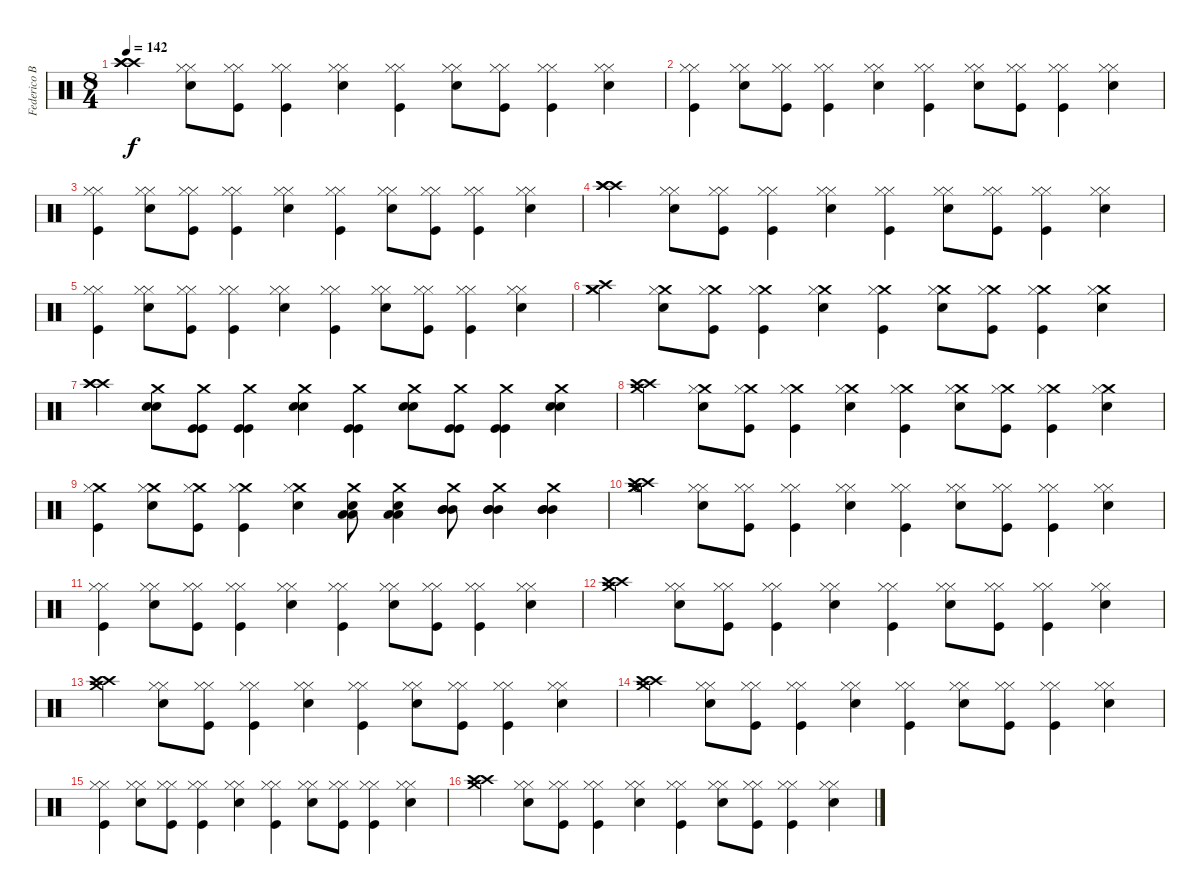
\track ("Federico Bogliaccino-Drums" "Federico B") {instrument percussion}
\staff {score}
\articulation defaults
\ts (8 4)
\tempo 142
\clef neutral
\ks c
("Crash high (hit)" "Crash high (hit)" "Crash high (hit)").4{dy f} ("Hi-Hat (closed)" "Hi-Hat (closed)" "Snare (hit) 2").8 ("Hi-Hat (closed)" "Hi-Hat (closed)" "Kick (hit)").8 ("Hi-Hat (closed)" "Hi-Hat (closed)" "Kick (hit)").4 ("Hi-Hat (closed)" "Hi-Hat (closed)" "Snare (hit) 2").4 ("Hi-Hat (closed)" "Hi-Hat (closed)" "Kick (hit)").4 ("Hi-Hat (closed)" "Hi-Hat (closed)" "Snare (hit) 2").8 ("Hi-Hat (closed)" "Hi-Hat (closed)" "Kick (hit)").8 ("Hi-Hat (closed)" "Hi-Hat (closed)" "Kick (hit)").4 ("Hi-Hat (closed)" "Hi-Hat (closed)" "Snare (hit) 2").4 |
("Hi-Hat (closed)" "Hi-Hat (closed)" "Kick (hit)").4 ("Hi-Hat (closed)" "Hi-Hat (closed)" "Snare (hit) 2").8 ("Hi-Hat (closed)" "Hi-Hat (closed)" "Kick (hit)").8 ("Hi-Hat (closed)" "Hi-Hat (closed)" "Kick (hit)").4 ("Hi-Hat (closed)" "Hi-Hat (closed)" "Snare (hit) 2").4 ("Hi-Hat (closed)" "Hi-Hat (closed)" "Kick (hit)").4 ("Hi-Hat (closed)" "Hi-Hat (closed)" "Snare (hit) 2").8 ("Hi-Hat (closed)" "Hi-Hat (closed)" "Kick (hit)").8 ("Hi-Hat (closed)" "Hi-Hat (closed)" "Kick (hit)").4 ("Hi-Hat (closed)" "Hi-Hat (closed)" "Snare (hit) 2").4 |
("Hi-Hat (closed)" "Hi-Hat (closed)" "Kick (hit)").4 ("Hi-Hat (closed)" "Hi-Hat (closed)" "Snare (hit) 2").8 ("Hi-Hat (closed)" "Hi-Hat (closed)" "Kick (hit)").8 ("Hi-Hat (closed)" "Hi-Hat (closed)" "Kick (hit)").4 ("Hi-Hat (closed)" "Hi-Hat (closed)" "Snare (hit) 2").4 ("Hi-Hat (closed)" "Hi-Hat (closed)" "Kick (hit)").4 ("Hi-Hat (closed)" "Hi-Hat (closed)" "Snare (hit) 2").8 ("Hi-Hat (closed)" "Hi-Hat (closed)" "Kick (hit)").8 ("Hi-Hat (closed)" "Hi-Hat (closed)" "Kick (hit)").4 ("Hi-Hat (closed)" "Hi-Hat (closed)" "Snare (hit) 2").4 |
("Crash high (hit)" "Crash high (hit)" "Crash high (hit)").4 ("Hi-Hat (closed)" "Hi-Hat (closed)" "Snare (hit) 2").8 ("Hi-Hat (closed)" "Hi-Hat (closed)" "Kick (hit)").8 ("Hi-Hat (closed)" "Hi-Hat (closed)" "Kick (hit)").4 ("Hi-Hat (closed)" "Hi-Hat (closed)" "Snare (hit) 2").4 ("Hi-Hat (closed)" "Hi-Hat (closed)" "Kick (hit)").4 ("Hi-Hat (closed)" "Hi-Hat (closed)" "Snare (hit) 2").8 ("Hi-Hat (closed)" "Hi-Hat (closed)" "Kick (hit)").8 ("Hi-Hat (closed)" "Hi-Hat (closed)" "Kick (hit)").4 ("Hi-Hat (closed)" "Hi-Hat (closed)" "Snare (hit) 2").4 |
("Hi-Hat (closed)" "Hi-Hat (closed)" "Kick (hit)").4 ("Hi-Hat (closed)" "Hi-Hat (closed)" "Snare (hit) 2").8 ("Hi-Hat (closed)" "Hi-Hat (closed)" "Kick (hit)").8 ("Hi-Hat (closed)" "Hi-Hat (closed)" "Kick (hit)").4 ("Hi-Hat (closed)" "Hi-Hat (closed)" "Snare (hit) 2").4 ("Hi-Hat (closed)" "Hi-Hat (closed)" "Kick (hit)").4 ("Hi-Hat (closed)" "Hi-Hat (closed)" "Snare (hit) 2").8 ("Hi-Hat (closed)" "Hi-Hat (closed)" "Kick (hit)").8 ("Hi-Hat (closed)" "Hi-Hat (closed)" "Kick (hit)").4 ("Hi-Hat (closed)" "Hi-Hat (closed)" "Snare (hit) 2").4 |
("Crash high (hit)" "Crash medium (hit)" "Crash medium (hit)").4 ("Crash medium (hit)" "Hi-Hat (closed)" "Snare (hit) 2").8 ("Crash medium (hit)" "Hi-Hat (closed)" "Kick (hit)").8 ("Crash medium (hit)" "Hi-Hat (closed)" "Kick (hit)").4 ("Crash medium (hit)" "Hi-Hat (closed)" "Snare (hit) 2").4 ("Crash medium (hit)" "Hi-Hat (closed)" "Kick (hit)").4 ("Crash medium (hit)" "Hi-Hat (closed)" "Snare (hit) 2").8 ("Crash medium (hit)" "Hi-Hat (closed)" "Kick (hit)").8 ("Crash medium (hit)" "Hi-Hat (closed)" "Kick (hit)").4 ("Crash medium (hit)" "Hi-Hat (closed)" "Snare (hit) 2").4 |
("Crash high (hit)" "Crash high (hit)" "Crash high (hit)").4 ("Crash medium (hit)" "Snare (hit) 2" "Snare (hit) 2").8 ("Crash medium (hit)" "Kick (hit)" "Kick (hit)").8 ("Crash medium (hit)" "Kick (hit)" "Kick (hit)").4 ("Crash medium (hit)" "Snare (hit) 2" "Snare (hit) 2").4 ("Crash medium (hit)" "Kick (hit)" "Kick (hit)").4 ("Crash medium (hit)" "Snare (hit) 2" "Snare (hit) 2").8 ("Crash medium (hit)" "Kick (hit)" "Kick (hit)").8 ("Crash medium (hit)" "Kick (hit)" "Kick (hit)").4 ("Crash medium (hit)" "Snare (hit) 2" "Snare (hit) 2").4 |
("Crash medium (hit)" "Crash high (hit)" "Crash high (hit)").4 ("Crash medium (hit)" "Hi-Hat (closed)" "Snare (hit) 2").8 ("Crash medium (hit)" "Hi-Hat (closed)" "Kick (hit)").8 ("Crash medium (hit)" "Hi-Hat (closed)" "Kick (hit)").4 ("Crash medium (hit)" "Hi-Hat (closed)" "Snare (hit) 2").4 ("Crash medium (hit)" "Hi-Hat (closed)" "Kick (hit)").4 ("Crash medium (hit)" "Hi-Hat (closed)" "Snare (hit) 2").8 ("Crash medium (hit)" "Hi-Hat (closed)" "Kick (hit)").8 ("Crash medium (hit)" "Hi-Hat (closed)" "Kick (hit)").4 ("Crash medium (hit)" "Hi-Hat (closed)" "Snare (hit) 2").4 |
("Crash medium (hit)" "Hi-Hat (closed)" "Kick (hit)").4 ("Crash medium (hit)" "Hi-Hat (closed)" "Snare (hit) 2").8 ("Crash medium (hit)" "Hi-Hat (closed)" "Kick (hit)").8 ("Crash medium (hit)" "Hi-Hat (closed)" "Kick (hit)").4 ("Crash medium (hit)" "Hi-Hat (closed)" "Snare (hit) 2").4 ("Crash medium (hit)" "Snare (hit) 2" "Low Floor Tom (hit)" "Low Floor Tom (hit)").8 ("Crash medium (hit)" "Snare (hit) 2" "Low Floor Tom (hit)" "Low Floor Tom (hit)").4 ("Crash medium (hit)" "Mid Tom (hit)" "Mid Tom (hit)" "Mid Tom (hit)").8 ("Crash medium (hit)" "Mid Tom (hit)" "Mid Tom (hit)" "Mid Tom (hit)").4 ("Crash medium (hit)" "Mid Tom (hit)" "Mid Tom (hit)" "Mid Tom (hit)").4 |
("Hi-Hat (open)" "Crash medium (hit)" "Crash high (hit)" "Crash high (hit)" "Crash medium (hit)" "Hi-Hat (open)").4 ("Hi-Hat (closed)" "Hi-Hat (closed)" "Snare (hit) 2").8 ("Hi-Hat (closed)" "Hi-Hat (closed)" "Kick (hit)").8 ("Hi-Hat (closed)" "Hi-Hat (closed)" "Kick (hit)").4 ("Hi-Hat (closed)" "Hi-Hat (closed)" "Snare (hit) 2").4 ("Hi-Hat (closed)" "Hi-Hat (closed)" "Kick (hit)").4 ("Hi-Hat (closed)" "Hi-Hat (closed)" "Snare (hit) 2").8 ("Hi-Hat (closed)" "Hi-Hat (closed)" "Kick (hit)").8 ("Hi-Hat (closed)" "Hi-Hat (closed)" "Kick (hit)").4 ("Hi-Hat (closed)" "Hi-Hat (closed)" "Snare (hit) 2").4 |
("Hi-Hat (closed)" "Hi-Hat (closed)" "Kick (hit)").4 ("Hi-Hat (closed)" "Hi-Hat (closed)" "Snare (hit) 2").8 ("Hi-Hat (closed)" "Hi-Hat (closed)" "Kick (hit)").8 ("Hi-Hat (closed)" "Hi-Hat (closed)" "Kick (hit)").4 ("Hi-Hat (closed)" "Hi-Hat (closed)" "Snare (hit) 2").4 ("Hi-Hat (closed)" "Hi-Hat (closed)" "Kick (hit)").4 ("Hi-Hat (closed)" "Hi-Hat (closed)" "Snare (hit) 2").8 ("Hi-Hat (closed)" "Hi-Hat (closed)" "Kick (hit)").8 ("Hi-Hat (closed)" "Hi-Hat (closed)" "Kick (hit)").4 ("Hi-Hat (closed)" "Hi-Hat (closed)" "Snare (hit) 2").4 |
("Crash medium (hit)" "Crash high (hit)" "Crash high (hit)").4 ("Hi-Hat (closed)" "Hi-Hat (closed)" "Snare (hit) 2").8 ("Hi-Hat (closed)" "Hi-Hat (closed)" "Kick (hit)").8 ("Hi-Hat (closed)" "Hi-Hat (closed)" "Kick (hit)").4 ("Hi-Hat (closed)" "Hi-Hat (closed)" "Snare (hit) 2").4 ("Hi-Hat (closed)" "Hi-Hat (closed)" "Kick (hit)").4 ("Hi-Hat (closed)" "Hi-Hat (closed)" "Snare (hit) 2").8 ("Hi-Hat (closed)" "Hi-Hat (closed)" "Kick (hit)").8 ("Hi-Hat (closed)" "Hi-Hat (closed)" "Kick (hit)").4 ("Hi-Hat (closed)" "Hi-Hat (closed)" "Snare (hit) 2").4 |
("Crash medium (hit)" "Crash high (hit)" "Crash high (hit)").4 ("Hi-Hat (closed)" "Hi-Hat (closed)" "Snare (hit) 2").8 ("Hi-Hat (closed)" "Hi-Hat (closed)" "Kick (hit)").8 ("Hi-Hat (closed)" "Hi-Hat (closed)" "Kick (hit)").4 ("Hi-Hat (closed)" "Hi-Hat (closed)" "Snare (hit) 2").4 ("Hi-Hat (closed)" "Hi-Hat (closed)" "Kick (hit)").4 ("Hi-Hat (closed)" "Hi-Hat (closed)" "Snare (hit) 2").8 ("Hi-Hat (closed)" "Hi-Hat (closed)" "Kick (hit)").8 ("Hi-Hat (closed)" "Hi-Hat (closed)" "Kick (hit)").4 ("Hi-Hat (closed)" "Hi-Hat (closed)" "Snare (hit) 2").4 |
("Crash medium (hit)" "Crash high (hit)" "Crash high (hit)").4 ("Hi-Hat (closed)" "Hi-Hat (closed)" "Snare (hit) 2").8 ("Hi-Hat (closed)" "Hi-Hat (closed)" "Kick (hit)").8 ("Hi-Hat (closed)" "Hi-Hat (closed)" "Kick (hit)").4 ("Hi-Hat (closed)" "Hi-Hat (closed)" "Snare (hit) 2").4 ("Hi-Hat (closed)" "Hi-Hat (closed)" "Kick (hit)").4 ("Hi-Hat (closed)" "Hi-Hat (closed)" "Snare (hit) 2").8 ("Hi-Hat (closed)" "Hi-Hat (closed)" "Kick (hit)").8 ("Hi-Hat (closed)" "Hi-Hat (closed)" "Kick (hit)").4 ("Hi-Hat (closed)" "Hi-Hat (closed)" "Snare (hit) 2").4 |
("Hi-Hat (closed)" "Hi-Hat (closed)" "Kick (hit)").4 ("Hi-Hat (closed)" "Hi-Hat (closed)" "Snare (hit) 2").8 ("Hi-Hat (closed)" "Hi-Hat (closed)" "Kick (hit)").8 ("Hi-Hat (closed)" "Hi-Hat (closed)" "Kick (hit)").4 ("Hi-Hat (closed)" "Hi-Hat (closed)" "Snare (hit) 2").4 ("Hi-Hat (closed)" "Hi-Hat (closed)" "Kick (hit)").4 ("Hi-Hat (closed)" "Hi-Hat (closed)" "Snare (hit) 2").8 ("Hi-Hat (closed)" "Hi-Hat (closed)" "Kick (hit)").8 ("Hi-Hat (closed)" "Hi-Hat (closed)" "Kick (hit)").4 ("Hi-Hat (closed)" "Hi-Hat (closed)" "Snare (hit) 2").4 |
("Crash medium (hit)" "Crash high (hit)" "Crash high (hit)").4 ("Hi-Hat (closed)" "Hi-Hat (closed)" "Snare (hit) 2").8 ("Hi-Hat (closed)" "Hi-Hat (closed)" "Kick (hit)").8 ("Hi-Hat (closed)" "Hi-Hat (closed)" "Kick (hit)").4 ("Hi-Hat (closed)" "Hi-Hat (closed)" "Snare (hit) 2").4 ("Hi-Hat (closed)" "Hi-Hat (closed)" "Kick (hit)").4 ("Hi-Hat (closed)" "Hi-Hat (closed)" "Snare (hit) 2").8 ("Hi-Hat (closed)" "Hi-Hat (closed)" "Kick (hit)").8 ("Hi-Hat (closed)" "Hi-Hat (closed)" "Kick (hit)").4 ("Hi-Hat (closed)" "Hi-Hat (closed)" "Snare (hit) 2").4
